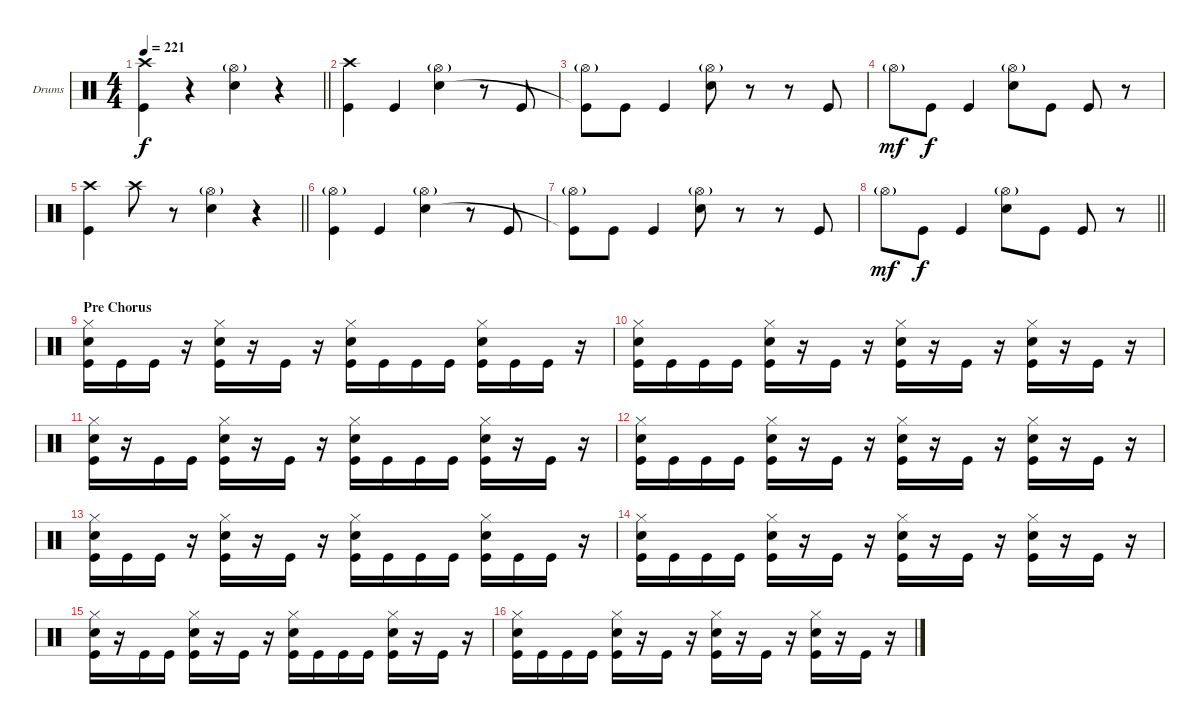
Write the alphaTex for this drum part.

\bracketExtendMode groupsimilarinstruments
\firstSystemTrackNameOrientation horizontal
\otherSystemsTrackNameOrientation horizontal
\track ("Drumkit" "Drums") {instrument percussion}
\staff {score}
\articulation defaults
\ts (4 4)
\tempo 221
\clef neutral
\barLineRight lightlight
\ks c
("Crash high (hit)" "Kick (hit)").4{dy f} r.4 ("Hi-Hat (open)"{g} "Snare (hit) 2").4 r.4 |
("Crash high (hit)" "Kick (hit)").4 "Kick (hit)".4 ("Hi-Hat (open)"{g} "Snare (hit) 2").4 r.8 "Kick (hit)".8 |
("Hi-Hat (open)"{g} "Kick (hit)"{t}).8 "Kick (hit)".8 "Kick (hit)".4 ("Hi-Hat (open)"{g} "Snare (hit) 2").8 r.8 r.8 "Kick (hit)".8 |
"Hi-Hat (open)"{g}.8{dy mf} "Kick (hit)".8{dy f} "Kick (hit)".4 ("Hi-Hat (open)"{g} "Snare (hit) 2").8 "Kick (hit)".8 "Kick (hit)".8 r.8 |
\barLineRight lightlight
("Crash high (hit)" "Kick (hit)").4 "Crash high (hit)".8 r.8 ("Hi-Hat (open)"{g} "Snare (hit) 2").4 r.4 |
("Hi-Hat (open)"{g} "Kick (hit)").4 "Kick (hit)".4 ("Hi-Hat (open)"{g} "Snare (hit) 2").4 r.8 "Kick (hit)".8 |
("Hi-Hat (open)"{g} "Kick (hit)"{t}).8 "Kick (hit)".8 "Kick (hit)".4 ("Hi-Hat (open)"{g} "Snare (hit) 2").8 r.8 r.8 "Kick (hit)".8 |
\barLineRight lightlight "Hi-Hat (open)"{g}.8{dy mf} "Kick (hit)".8{dy f} "Kick (hit)".4
("Hi-Hat (open)"{g} "Snare (hit) 2").8 "Kick (hit)".8 "Kick (hit)".8 r.8 |
\section ("" "Pre Chorus")
("Hi-Hat (closed)" "Snare (hit) 2" "Kick (hit)").16 "Kick (hit)".16 "Kick (hit)".16 r.16 ("Hi-Hat (closed)" "Snare (hit) 2" "Kick (hit)").16 r.16 "Kick (hit)".16 r.16 ("Hi-Hat (closed)" "Snare (hit) 2" "Kick (hit)").16 "Kick (hit)".16 "Kick (hit)".16 "Kick (hit)".16 ("Hi-Hat (closed)" "Snare (hit) 2" "Kick (hit)").16 "Kick (hit)".16 "Kick (hit)".16 r.16 |
("Hi-Hat (closed)" "Snare (hit) 2" "Kick (hit)").16 "Kick (hit)".16 "Kick (hit)".16 "Kick (hit)".16 ("Hi-Hat (closed)" "Snare (hit) 2" "Kick (hit)").16 r.16 "Kick (hit)".16 r.16 ("Hi-Hat (closed)" "Snare (hit) 2" "Kick (hit)").16 r.16 "Kick (hit)".16 r.16 ("Hi-Hat (closed)" "Snare (hit) 2" "Kick (hit)").16 r.16 "Kick (hit)".16 r.16 |
("Hi-Hat (closed)" "Snare (hit) 2" "Kick (hit)").16 r.16 "Kick (hit)".16 "Kick (hit)".16 ("Hi-Hat (closed)" "Snare (hit) 2" "Kick (hit)").16 r.16 "Kick (hit)".16 r.16 ("Hi-Hat (closed)" "Snare (hit) 2" "Kick (hit)").16 "Kick (hit)".16 "Kick (hit)".16 "Kick (hit)".16 ("Hi-Hat (closed)" "Snare (hit) 2" "Kick (hit)").16 r.16 "Kick (hit)".16 r.16 |
("Hi-Hat (closed)" "Snare (hit) 2" "Kick (hit)").16 "Kick (hit)".16 "Kick (hit)".16 "Kick (hit)".16 ("Hi-Hat (closed)" "Snare (hit) 2" "Kick (hit)").16 r.16 "Kick (hit)".16 r.16 ("Hi-Hat (closed)" "Snare (hit) 2" "Kick (hit)").16 r.16 "Kick (hit)".16 r.16 ("Hi-Hat (closed)" "Snare (hit) 2" "Kick (hit)").16 r.16 "Kick (hit)".16 r.16 |
("Hi-Hat (closed)" "Snare (hit) 2" "Kick (hit)").16 "Kick (hit)".16 "Kick (hit)".16 r.16 ("Hi-Hat (closed)" "Snare (hit) 2" "Kick (hit)").16 r.16 "Kick (hit)".16 r.16 ("Hi-Hat (closed)" "Snare (hit) 2" "Kick (hit)").16 "Kick (hit)".16 "Kick (hit)".16 "Kick (hit)".16 ("Hi-Hat (closed)" "Snare (hit) 2" "Kick (hit)").16 "Kick (hit)".16 "Kick (hit)".16 r.16 |
("Hi-Hat (closed)" "Snare (hit) 2" "Kick (hit)").16 "Kick (hit)".16 "Kick (hit)".16 "Kick (hit)".16 ("Hi-Hat (closed)" "Snare (hit) 2" "Kick (hit)").16 r.16 "Kick (hit)".16 r.16 ("Hi-Hat (closed)" "Snare (hit) 2" "Kick (hit)").16 r.16 "Kick (hit)".16 r.16 ("Hi-Hat (closed)" "Snare (hit) 2" "Kick (hit)").16 r.16 "Kick (hit)".16 r.16 |
("Hi-Hat (closed)" "Snare (hit) 2" "Kick (hit)").16 r.16 "Kick (hit)".16 "Kick (hit)".16 ("Hi-Hat (closed)" "Snare (hit) 2" "Kick (hit)").16 r.16 "Kick (hit)".16 r.16 ("Hi-Hat (closed)" "Snare (hit) 2" "Kick (hit)").16 "Kick (hit)".16 "Kick (hit)".16 "Kick (hit)".16 ("Hi-Hat (closed)" "Snare (hit) 2" "Kick (hit)").16 r.16 "Kick (hit)".16 r.16 |
("Hi-Hat (closed)" "Snare (hit) 2" "Kick (hit)").16 "Kick (hit)".16 "Kick (hit)".16 "Kick (hit)".16 ("Hi-Hat (closed)" "Snare (hit) 2" "Kick (hit)").16 r.16 "Kick (hit)".16 r.16 ("Hi-Hat (closed)" "Snare (hit) 2" "Kick (hit)").16 r.16 "Kick (hit)".16 r.16 ("Hi-Hat (closed)" "Snare (hit) 2" "Kick (hit)").16 r.16 "Kick (hit)".16 r.16
